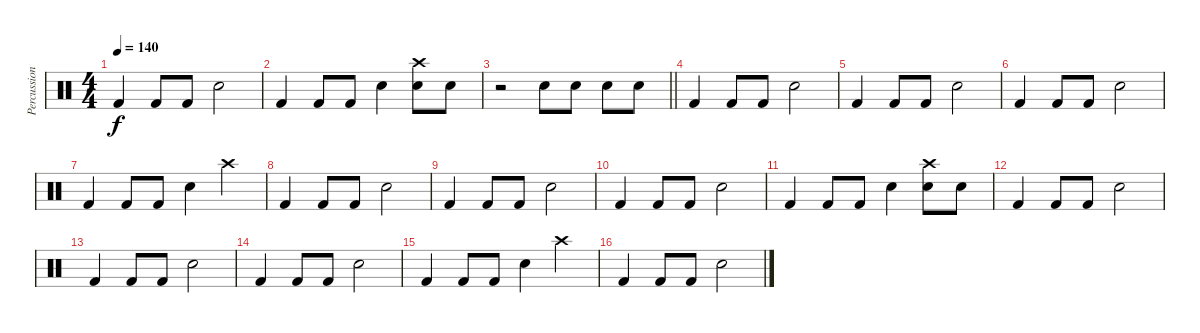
\track ("Percussion" "Percussion") {instrument percussion}
\staff {score}
\articulation defaults
\ts (4 4)
\tempo 140
\clef neutral
\ks c "Kick (hit) 2".4{dy f} "Kick (hit) 2".8 "Kick (hit) 2".8 "Snare (hit) 2".2
|
"Kick (hit) 2".4 "Kick (hit) 2".8 "Kick (hit) 2".8 "Snare (hit) 2".4 ("Crash high (hit)" "Snare (hit) 2").8 "Snare (hit) 2".8 |
\barLineRight lightlight
r.2 "Snare (hit) 2".8 "Snare (hit) 2".8 "Snare (hit) 2".8 "Snare (hit) 2".8 |
"Kick (hit) 2".4 "Kick (hit) 2".8 "Kick (hit) 2".8 "Snare (hit) 2".2 |
"Kick (hit) 2".4 "Kick (hit) 2".8 "Kick (hit) 2".8 "Snare (hit) 2".2 |
"Kick (hit) 2".4 "Kick (hit) 2".8 "Kick (hit) 2".8 "Snare (hit) 2".2 |
"Kick (hit) 2".4 "Kick (hit) 2".8 "Kick (hit) 2".8 "Snare (hit) 2".4 "Crash high (hit)".4 |
"Kick (hit) 2".4 "Kick (hit) 2".8 "Kick (hit) 2".8 "Snare (hit) 2".2 |
"Kick (hit) 2".4 "Kick (hit) 2".8 "Kick (hit) 2".8 "Snare (hit) 2".2 |
"Kick (hit) 2".4 "Kick (hit) 2".8 "Kick (hit) 2".8 "Snare (hit) 2".2 |
"Kick (hit) 2".4 "Kick (hit) 2".8 "Kick (hit) 2".8 "Snare (hit) 2".4 ("Crash high (hit)" "Snare (hit) 2").8 "Snare (hit) 2".8 |
"Kick (hit) 2".4 "Kick (hit) 2".8 "Kick (hit) 2".8 "Snare (hit) 2".2 |
"Kick (hit) 2".4 "Kick (hit) 2".8 "Kick (hit) 2".8 "Snare (hit) 2".2 |
"Kick (hit) 2".4 "Kick (hit) 2".8 "Kick (hit) 2".8 "Snare (hit) 2".2 |
"Kick (hit) 2".4 "Kick (hit) 2".8 "Kick (hit) 2".8 "Snare (hit) 2".4 "Crash high (hit)".4 |
"Kick (hit) 2".4 "Kick (hit) 2".8 "Kick (hit) 2".8 "Snare (hit) 2".2
